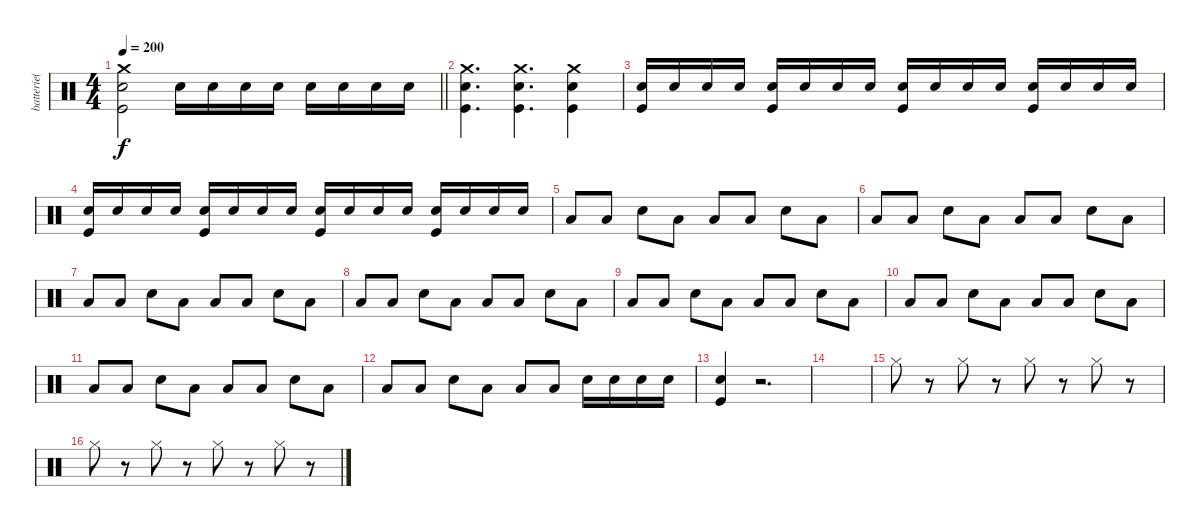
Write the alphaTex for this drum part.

\track ("batterie( Guillaume ) " "batterie( ") {instrument percussion}
\staff {score}
\articulation defaults
\ts (4 4)
\tempo 200
\clef neutral
\barLineRight lightlight
\ks c
("Crash medium (hit)" "Snare (hit) 2" "Kick (hit)").2{dy f} "Snare (hit) 2".16 "Snare (hit) 2".16 "Snare (hit) 2".16 "Snare (hit) 2".16 "Snare (hit) 2".16 "Snare (hit) 2".16 "Snare (hit) 2".16 "Snare (hit) 2".16 |
("Crash medium (hit)" "Snare (hit) 2" "Kick (hit)").4{d} ("Crash medium (hit)" "Snare (hit) 2" "Kick (hit)").4{d} ("Crash medium (hit)" "Snare (hit) 2" "Kick (hit)").4 |
("Snare (hit) 2" "Kick (hit)").16 "Snare (hit) 2".16 "Snare (hit) 2".16 "Snare (hit) 2".16 ("Snare (hit) 2" "Kick (hit)").16 "Snare (hit) 2".16 "Snare (hit) 2".16 "Snare (hit) 2".16 ("Snare (hit) 2" "Kick (hit)").16 "Snare (hit) 2".16 "Snare (hit) 2".16 "Snare (hit) 2".16 ("Snare (hit) 2" "Kick (hit)").16 "Snare (hit) 2".16 "Snare (hit) 2".16 "Snare (hit) 2".16 |
("Snare (hit) 2" "Kick (hit)").16 "Snare (hit) 2".16 "Snare (hit) 2".16 "Snare (hit) 2".16 ("Snare (hit) 2" "Kick (hit)").16 "Snare (hit) 2".16 "Snare (hit) 2".16 "Snare (hit) 2".16 ("Snare (hit) 2" "Kick (hit)").16 "Snare (hit) 2".16 "Snare (hit) 2".16 "Snare (hit) 2".16 ("Snare (hit) 2" "Kick (hit)").16 "Snare (hit) 2".16 "Snare (hit) 2".16 "Snare (hit) 2".16 |
"Low Floor Tom (hit)".8 "Low Floor Tom (hit)".8 "Snare (hit) 2".8 "Low Floor Tom (hit)".8 "Low Floor Tom (hit)".8 "Low Floor Tom (hit)".8 "Snare (hit) 2".8 "Low Floor Tom (hit)".8 |
"Low Floor Tom (hit)".8 "Low Floor Tom (hit)".8 "Snare (hit) 2".8 "Low Floor Tom (hit)".8 "Low Floor Tom (hit)".8 "Low Floor Tom (hit)".8 "Snare (hit) 2".8 "Low Floor Tom (hit)".8 |
"Low Floor Tom (hit)".8 "Low Floor Tom (hit)".8 "Snare (hit) 2".8 "Low Floor Tom (hit)".8 "Low Floor Tom (hit)".8 "Low Floor Tom (hit)".8 "Snare (hit) 2".8 "Low Floor Tom (hit)".8 |
"Low Floor Tom (hit)".8 "Low Floor Tom (hit)".8 "Snare (hit) 2".8 "Low Floor Tom (hit)".8 "Low Floor Tom (hit)".8 "Low Floor Tom (hit)".8 "Snare (hit) 2".8 "Low Floor Tom (hit)".8 |
"Low Floor Tom (hit)".8 "Low Floor Tom (hit)".8 "Snare (hit) 2".8 "Low Floor Tom (hit)".8 "Low Floor Tom (hit)".8 "Low Floor Tom (hit)".8 "Snare (hit) 2".8 "Low Floor Tom (hit)".8 |
"Low Floor Tom (hit)".8 "Low Floor Tom (hit)".8 "Snare (hit) 2".8 "Low Floor Tom (hit)".8 "Low Floor Tom (hit)".8 "Low Floor Tom (hit)".8 "Snare (hit) 2".8 "Low Floor Tom (hit)".8 |
"Low Floor Tom (hit)".8 "Low Floor Tom (hit)".8 "Snare (hit) 2".8 "Low Floor Tom (hit)".8 "Low Floor Tom (hit)".8 "Low Floor Tom (hit)".8 "Snare (hit) 2".8 "Low Floor Tom (hit)".8 |
"Low Floor Tom (hit)".8 "Low Floor Tom (hit)".8 "Snare (hit) 2".8 "Low Floor Tom (hit)".8 "Low Floor Tom (hit)".8 "Low Floor Tom (hit)".8 "Snare (hit) 2".16 "Snare (hit) 2".16 "Snare (hit) 2".16 "Snare (hit) 2".16 |
("Snare (hit) 2" "Kick (hit)").4 r.2{d} |
|
"Hi-Hat (closed)".8{volume 4} r.8 "Hi-Hat (closed)".8 r.8 "Hi-Hat (closed)".8 r.8 "Hi-Hat (closed)".8 r.8 |
"Hi-Hat (closed)".8 r.8 "Hi-Hat (closed)".8 r.8 "Hi-Hat (closed)".8 r.8 "Hi-Hat (closed)".8 r.8
